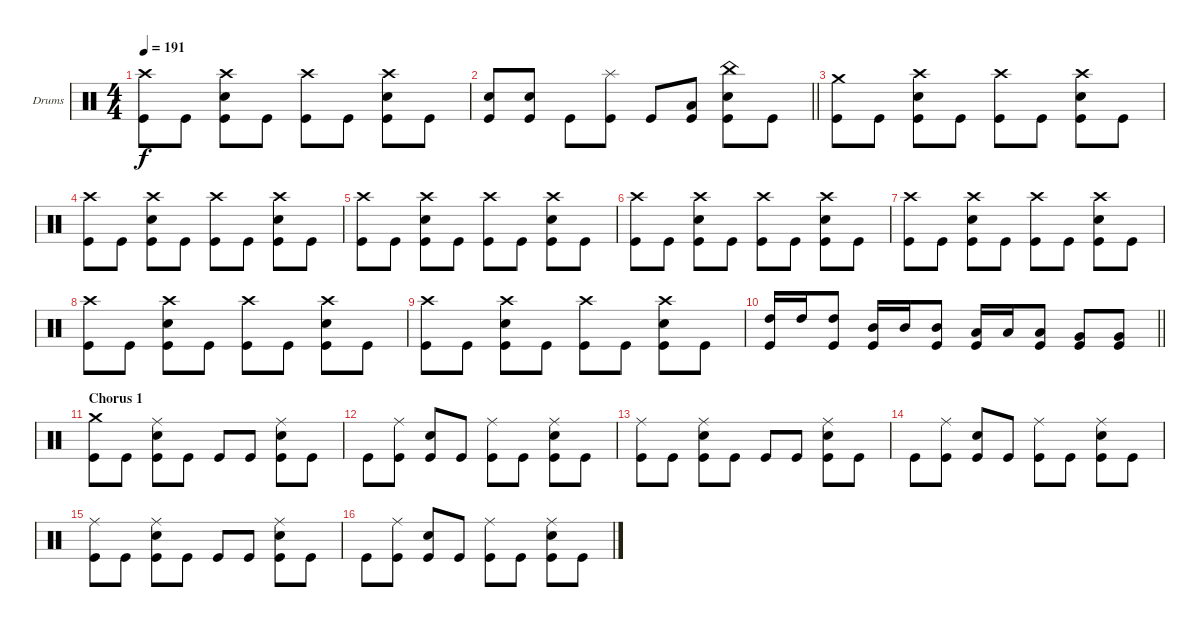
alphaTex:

\bracketExtendMode groupsimilarinstruments
\firstSystemTrackNameOrientation horizontal
\otherSystemsTrackNameOrientation horizontal
\track ("Drumkit" "Drums") {instrument percussion}
\staff {score}
\articulation defaults
\ts (4 4)
\tempo 191
\clef neutral
\ks c
("Crash high (hit)" "Kick (hit)").8{dy f} "Kick (hit)".8 ("Crash high (hit)" "Snare (hit) 2" "Kick (hit)").8 "Kick (hit)".8 ("Crash high (hit)" "Kick (hit)").8 "Kick (hit)".8 ("Crash high (hit)" "Snare (hit) 2" "Kick (hit)").8 "Kick (hit)".8 |
\barLineRight lightlight
("Snare (hit) 2" "Kick (hit)").8 ("Snare (hit) 2" "Kick (hit)").8 "Kick (hit)".8 ("Splash (hit)" "Kick (hit)").8 "Kick (hit)".8 ("Low Tom (hit)" "Kick (hit)").8 ("China (hit)" "Snare (hit) 2" "Kick (hit)").8 "Kick (hit)".8 |
\section ("" "")
("Crash medium (hit)" "Kick (hit)").8 "Kick (hit)".8 ("Crash high (hit)" "Snare (hit) 2" "Kick (hit)").8 "Kick (hit)".8 ("Crash high (hit)" "Kick (hit)").8 "Kick (hit)".8 ("Crash high (hit)" "Snare (hit) 2" "Kick (hit)").8 "Kick (hit)".8 |
("Crash high (hit)" "Kick (hit)").8 "Kick (hit)".8 ("Crash high (hit)" "Snare (hit) 2" "Kick (hit)").8 "Kick (hit)".8 ("Crash high (hit)" "Kick (hit)").8 "Kick (hit)".8 ("Crash high (hit)" "Snare (hit) 2" "Kick (hit)").8 "Kick (hit)".8 |
("Crash high (hit)" "Kick (hit)").8 "Kick (hit)".8 ("Crash high (hit)" "Snare (hit) 2" "Kick (hit)").8 "Kick (hit)".8 ("Crash high (hit)" "Kick (hit)").8 "Kick (hit)".8 ("Crash high (hit)" "Snare (hit) 2" "Kick (hit)").8 "Kick (hit)".8 |
("Crash high (hit)" "Kick (hit)").8 "Kick (hit)".8 ("Crash high (hit)" "Snare (hit) 2" "Kick (hit)").8 "Kick (hit)".8 ("Crash high (hit)" "Kick (hit)").8 "Kick (hit)".8 ("Crash high (hit)" "Snare (hit) 2" "Kick (hit)").8 "Kick (hit)".8 |
("Crash high (hit)" "Kick (hit)").8 "Kick (hit)".8 ("Crash high (hit)" "Snare (hit) 2" "Kick (hit)").8 "Kick (hit)".8 ("Crash high (hit)" "Kick (hit)").8 "Kick (hit)".8 ("Crash high (hit)" "Snare (hit) 2" "Kick (hit)").8 "Kick (hit)".8 |
("Crash high (hit)" "Kick (hit)").8 "Kick (hit)".8 ("Crash high (hit)" "Snare (hit) 2" "Kick (hit)").8 "Kick (hit)".8 ("Crash high (hit)" "Kick (hit)").8 "Kick (hit)".8 ("Crash high (hit)" "Snare (hit) 2" "Kick (hit)").8 "Kick (hit)".8 |
("Crash high (hit)" "Kick (hit)").8 "Kick (hit)".8 ("Crash high (hit)" "Snare (hit) 2" "Kick (hit)").8 "Kick (hit)".8 ("Crash high (hit)" "Kick (hit)").8 "Kick (hit)".8 ("Crash high (hit)" "Snare (hit) 2" "Kick (hit)").8 "Kick (hit)".8 |
\barLineRight lightlight
("High Tom (hit)" "Kick (hit)").16 "High Tom (hit)".16 ("High Tom (hit)" "Kick (hit)").8 ("Mid Tom (hit)" "Kick (hit)").16 "Mid Tom (hit)".16 ("Mid Tom (hit)" "Kick (hit)").8 ("Low Tom (hit)" "Kick (hit)").16 "Low Tom (hit)".16 ("Low Tom (hit)" "Kick (hit)").8 ("Very Low Tom (hit)" "Kick (hit)").8 ("Very Low Tom (hit)" "Kick (hit)").8 |
\section ("" "Chorus 1")
("Crash medium (hit)" "Kick (hit)").8 "Kick (hit)".8 ("Ride (middle)" "Snare (hit) 2" "Kick (hit)").8 "Kick (hit)".8 "Kick (hit)".8 "Kick (hit)".8 ("Ride (middle)" "Snare (hit) 2" "Kick (hit)").8 "Kick (hit)".8 |
"Kick (hit)".8 ("Ride (middle)" "Kick (hit)").8 ("Snare (hit) 2" "Kick (hit)").8 "Kick (hit)".8 ("Ride (middle)" "Kick (hit)").8 "Kick (hit)".8 ("Ride (middle)" "Snare (hit) 2" "Kick (hit)").8 "Kick (hit)".8 |
("Ride (middle)" "Kick (hit)").8 "Kick (hit)".8 ("Ride (middle)" "Snare (hit) 2" "Kick (hit)").8 "Kick (hit)".8 "Kick (hit)".8 "Kick (hit)".8 ("Ride (middle)" "Snare (hit) 2" "Kick (hit)").8 "Kick (hit)".8 |
"Kick (hit)".8 ("Ride (middle)" "Kick (hit)").8 ("Snare (hit) 2" "Kick (hit)").8 "Kick (hit)".8 ("Ride (middle)" "Kick (hit)").8 "Kick (hit)".8 ("Ride (middle)" "Snare (hit) 2" "Kick (hit)").8 "Kick (hit)".8 |
("Ride (middle)" "Kick (hit)").8 "Kick (hit)".8 ("Ride (middle)" "Snare (hit) 2" "Kick (hit)").8 "Kick (hit)".8 "Kick (hit)".8 "Kick (hit)".8 ("Ride (middle)" "Snare (hit) 2" "Kick (hit)").8 "Kick (hit)".8 |
"Kick (hit)".8 ("Ride (middle)" "Kick (hit)").8 ("Snare (hit) 2" "Kick (hit)").8 "Kick (hit)".8 ("Ride (middle)" "Kick (hit)").8 "Kick (hit)".8 ("Ride (middle)" "Snare (hit) 2" "Kick (hit)").8 "Kick (hit)".8
